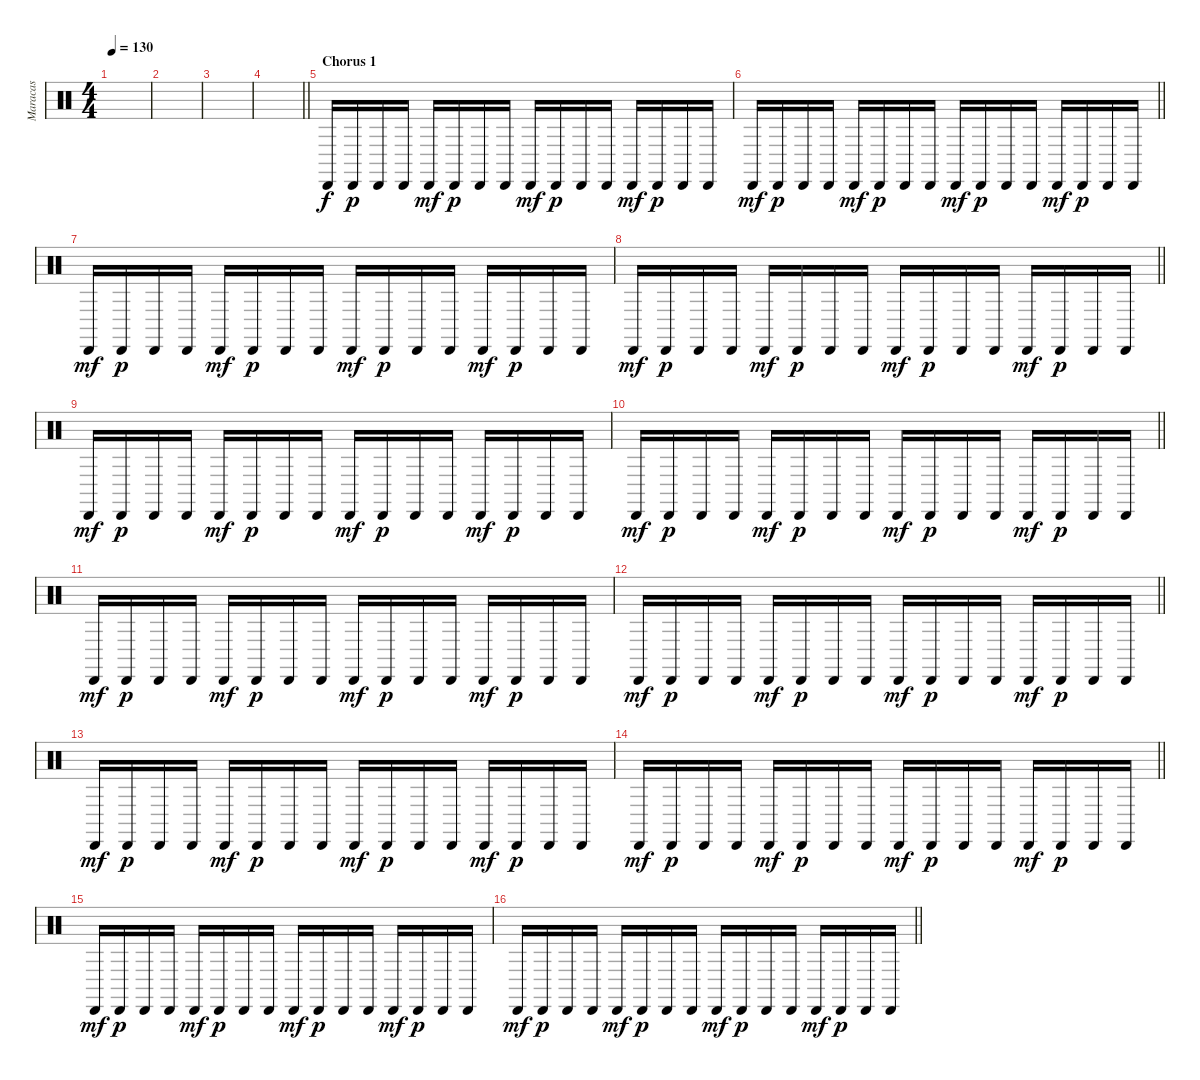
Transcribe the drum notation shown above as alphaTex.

\track ("Maracas" "Maracas") {instrument percussion}
\staff {score}
\articulation defaults
\ts (4 4)
\tempo 130
\clef neutral
\ks c
|
|
|
\barLineRight lightlight
|
\section ("" "Chorus 1")
"Cabasa (hit)".16 "Cabasa (hit)".16{dy p} "Cabasa (hit)".16 "Cabasa (hit)".16 "Cabasa (hit)".16{dy mf} "Cabasa (hit)".16{dy p} "Cabasa (hit)".16 "Cabasa (hit)".16 "Cabasa (hit)".16{dy mf} "Cabasa (hit)".16{dy p} "Cabasa (hit)".16 "Cabasa (hit)".16 "Cabasa (hit)".16{dy mf} "Cabasa (hit)".16{dy p} "Cabasa (hit)".16 "Cabasa (hit)".16 |
\barLineRight lightlight "Cabasa (hit)".16{dy mf} "Cabasa (hit)".16{dy p} "Cabasa (hit)".16 "Cabasa (hit)".16 "Cabasa (hit)".16{dy mf} "Cabasa (hit)".16{dy p} "Cabasa (hit)".16 "Cabasa (hit)".16 "Cabasa (hit)".16{dy mf} "Cabasa (hit)".16{dy p} "Cabasa (hit)".16 "Cabasa (hit)".16 "Cabasa (hit)".16{dy mf} "Cabasa (hit)".16{dy p} "Cabasa (hit)".16 "Cabasa (hit)".16
|
"Cabasa (hit)".16{dy mf} "Cabasa (hit)".16{dy p} "Cabasa (hit)".16 "Cabasa (hit)".16 "Cabasa (hit)".16{dy mf} "Cabasa (hit)".16{dy p} "Cabasa (hit)".16 "Cabasa (hit)".16 "Cabasa (hit)".16{dy mf} "Cabasa (hit)".16{dy p} "Cabasa (hit)".16 "Cabasa (hit)".16 "Cabasa (hit)".16{dy mf} "Cabasa (hit)".16{dy p} "Cabasa (hit)".16 "Cabasa (hit)".16 |
\barLineRight lightlight "Cabasa (hit)".16{dy mf} "Cabasa (hit)".16{dy p} "Cabasa (hit)".16 "Cabasa (hit)".16 "Cabasa (hit)".16{dy mf} "Cabasa (hit)".16{dy p} "Cabasa (hit)".16 "Cabasa (hit)".16 "Cabasa (hit)".16{dy mf} "Cabasa (hit)".16{dy p} "Cabasa (hit)".16 "Cabasa (hit)".16 "Cabasa (hit)".16{dy mf} "Cabasa (hit)".16{dy p} "Cabasa (hit)".16 "Cabasa (hit)".16
|
"Cabasa (hit)".16{dy mf} "Cabasa (hit)".16{dy p} "Cabasa (hit)".16 "Cabasa (hit)".16 "Cabasa (hit)".16{dy mf} "Cabasa (hit)".16{dy p} "Cabasa (hit)".16 "Cabasa (hit)".16 "Cabasa (hit)".16{dy mf} "Cabasa (hit)".16{dy p} "Cabasa (hit)".16 "Cabasa (hit)".16 "Cabasa (hit)".16{dy mf} "Cabasa (hit)".16{dy p} "Cabasa (hit)".16 "Cabasa (hit)".16 |
\barLineRight lightlight "Cabasa (hit)".16{dy mf} "Cabasa (hit)".16{dy p} "Cabasa (hit)".16 "Cabasa (hit)".16 "Cabasa (hit)".16{dy mf} "Cabasa (hit)".16{dy p} "Cabasa (hit)".16 "Cabasa (hit)".16 "Cabasa (hit)".16{dy mf} "Cabasa (hit)".16{dy p} "Cabasa (hit)".16 "Cabasa (hit)".16 "Cabasa (hit)".16{dy mf} "Cabasa (hit)".16{dy p} "Cabasa (hit)".16 "Cabasa (hit)".16
|
"Cabasa (hit)".16{dy mf} "Cabasa (hit)".16{dy p} "Cabasa (hit)".16 "Cabasa (hit)".16 "Cabasa (hit)".16{dy mf} "Cabasa (hit)".16{dy p} "Cabasa (hit)".16 "Cabasa (hit)".16 "Cabasa (hit)".16{dy mf} "Cabasa (hit)".16{dy p} "Cabasa (hit)".16 "Cabasa (hit)".16 "Cabasa (hit)".16{dy mf} "Cabasa (hit)".16{dy p} "Cabasa (hit)".16 "Cabasa (hit)".16 |
\barLineRight lightlight "Cabasa (hit)".16{dy mf} "Cabasa (hit)".16{dy p} "Cabasa (hit)".16 "Cabasa (hit)".16 "Cabasa (hit)".16{dy mf} "Cabasa (hit)".16{dy p} "Cabasa (hit)".16 "Cabasa (hit)".16 "Cabasa (hit)".16{dy mf} "Cabasa (hit)".16{dy p} "Cabasa (hit)".16 "Cabasa (hit)".16 "Cabasa (hit)".16{dy mf} "Cabasa (hit)".16{dy p} "Cabasa (hit)".16 "Cabasa (hit)".16
|
"Cabasa (hit)".16{dy mf} "Cabasa (hit)".16{dy p} "Cabasa (hit)".16 "Cabasa (hit)".16 "Cabasa (hit)".16{dy mf} "Cabasa (hit)".16{dy p} "Cabasa (hit)".16 "Cabasa (hit)".16 "Cabasa (hit)".16{dy mf} "Cabasa (hit)".16{dy p} "Cabasa (hit)".16 "Cabasa (hit)".16 "Cabasa (hit)".16{dy mf} "Cabasa (hit)".16{dy p} "Cabasa (hit)".16 "Cabasa (hit)".16 |
\barLineRight lightlight "Cabasa (hit)".16{dy mf} "Cabasa (hit)".16{dy p} "Cabasa (hit)".16 "Cabasa (hit)".16 "Cabasa (hit)".16{dy mf} "Cabasa (hit)".16{dy p} "Cabasa (hit)".16 "Cabasa (hit)".16 "Cabasa (hit)".16{dy mf} "Cabasa (hit)".16{dy p} "Cabasa (hit)".16 "Cabasa (hit)".16 "Cabasa (hit)".16{dy mf} "Cabasa (hit)".16{dy p} "Cabasa (hit)".16 "Cabasa (hit)".16
|
"Cabasa (hit)".16{dy mf} "Cabasa (hit)".16{dy p} "Cabasa (hit)".16 "Cabasa (hit)".16 "Cabasa (hit)".16{dy mf} "Cabasa (hit)".16{dy p} "Cabasa (hit)".16 "Cabasa (hit)".16 "Cabasa (hit)".16{dy mf} "Cabasa (hit)".16{dy p} "Cabasa (hit)".16 "Cabasa (hit)".16 "Cabasa (hit)".16{dy mf} "Cabasa (hit)".16{dy p} "Cabasa (hit)".16 "Cabasa (hit)".16 |
\barLineRight lightlight "Cabasa (hit)".16{dy mf} "Cabasa (hit)".16{dy p} "Cabasa (hit)".16 "Cabasa (hit)".16 "Cabasa (hit)".16{dy mf} "Cabasa (hit)".16{dy p} "Cabasa (hit)".16 "Cabasa (hit)".16 "Cabasa (hit)".16{dy mf} "Cabasa (hit)".16{dy p} "Cabasa (hit)".16 "Cabasa (hit)".16 "Cabasa (hit)".16{dy mf} "Cabasa (hit)".16{dy p} "Cabasa (hit)".16 "Cabasa (hit)".16
